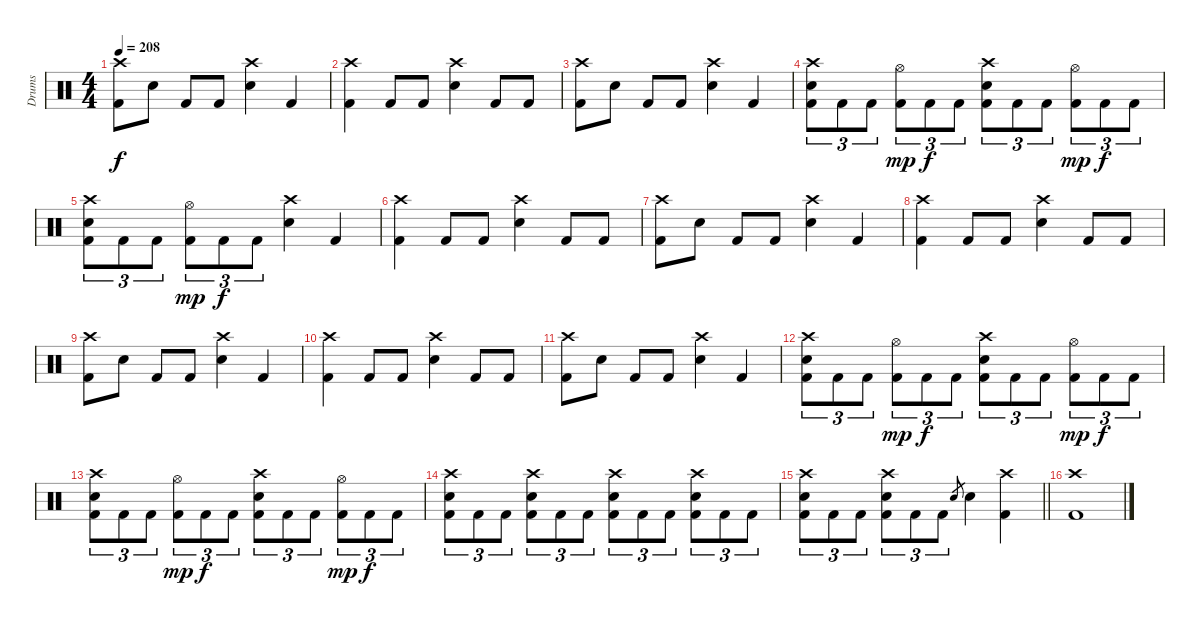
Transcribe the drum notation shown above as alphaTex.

\track ("Drums" "Drums") {instrument percussion}
\staff {score}
\articulation defaults
\ts (4 4)
\tempo 208
\clef neutral
\ks c
("Crash high (hit)" "Kick (hit) 2").8{dy f} "Electric Snare (hit)".8 "Kick (hit) 2".8 "Kick (hit) 2".8 ("Crash high (hit)" "Electric Snare (hit)").4 "Kick (hit) 2".4 |
("Crash high (hit)" "Kick (hit) 2").4 "Kick (hit) 2".8 "Kick (hit) 2".8 ("Crash high (hit)" "Electric Snare (hit)").4 "Kick (hit) 2".8 "Kick (hit) 2".8 |
("Crash high (hit)" "Kick (hit) 2").8 "Electric Snare (hit)".8 "Kick (hit) 2".8 "Kick (hit) 2".8 ("Crash high (hit)" "Electric Snare (hit)").4 "Kick (hit) 2".4 |
("Crash high (hit)" "Electric Snare (hit)" "Kick (hit) 2").8{tu (3 2)} "Kick (hit) 2".8{tu (3 2)} "Kick (hit) 2".8{tu (3 2)} ("Hi-Hat (open)" "Kick (hit) 2").8{tu (3 2) dy mp} "Kick (hit) 2".8{tu (3 2) dy f} "Kick (hit) 2".8{tu (3 2)} ("Crash high (hit)" "Electric Snare (hit)" "Kick (hit) 2").8{tu (3 2)} "Kick (hit) 2".8{tu (3 2)} "Kick (hit) 2".8{tu (3 2)} ("Hi-Hat (open)" "Kick (hit) 2").8{tu (3 2) dy mp} "Kick (hit) 2".8{tu (3 2) dy f} "Kick (hit) 2".8{tu (3 2)} |
("Crash high (hit)" "Electric Snare (hit)" "Kick (hit) 2").8{tu (3 2)} "Kick (hit) 2".8{tu (3 2)} "Kick (hit) 2".8{tu (3 2)} ("Hi-Hat (open)" "Kick (hit) 2").8{tu (3 2) dy mp} "Kick (hit) 2".8{tu (3 2) dy f} "Kick (hit) 2".8{tu (3 2)} ("Crash high (hit)" "Electric Snare (hit)").4 "Kick (hit) 2".4 |
("Crash high (hit)" "Kick (hit) 2").4 "Kick (hit) 2".8 "Kick (hit) 2".8 ("Crash high (hit)" "Electric Snare (hit)").4 "Kick (hit) 2".8 "Kick (hit) 2".8 |
("Crash high (hit)" "Kick (hit) 2").8 "Electric Snare (hit)".8 "Kick (hit) 2".8 "Kick (hit) 2".8 ("Crash high (hit)" "Electric Snare (hit)").4 "Kick (hit) 2".4 |
("Crash high (hit)" "Kick (hit) 2").4 "Kick (hit) 2".8 "Kick (hit) 2".8 ("Crash high (hit)" "Electric Snare (hit)").4 "Kick (hit) 2".8 "Kick (hit) 2".8 |
("Crash high (hit)" "Kick (hit) 2").8 "Electric Snare (hit)".8 "Kick (hit) 2".8 "Kick (hit) 2".8 ("Crash high (hit)" "Electric Snare (hit)").4 "Kick (hit) 2".4 |
("Crash high (hit)" "Kick (hit) 2").4 "Kick (hit) 2".8 "Kick (hit) 2".8 ("Crash high (hit)" "Electric Snare (hit)").4 "Kick (hit) 2".8 "Kick (hit) 2".8 |
("Crash high (hit)" "Kick (hit) 2").8 "Electric Snare (hit)".8 "Kick (hit) 2".8 "Kick (hit) 2".8 ("Crash high (hit)" "Electric Snare (hit)").4 "Kick (hit) 2".4 |
("Crash high (hit)" "Electric Snare (hit)" "Kick (hit) 2").8{tu (3 2)} "Kick (hit) 2".8{tu (3 2)} "Kick (hit) 2".8{tu (3 2)} ("Hi-Hat (open)" "Kick (hit) 2").8{tu (3 2) dy mp} "Kick (hit) 2".8{tu (3 2) dy f} "Kick (hit) 2".8{tu (3 2)} ("Crash high (hit)" "Electric Snare (hit)" "Kick (hit) 2").8{tu (3 2)} "Kick (hit) 2".8{tu (3 2)} "Kick (hit) 2".8{tu (3 2)} ("Hi-Hat (open)" "Kick (hit) 2").8{tu (3 2) dy mp} "Kick (hit) 2".8{tu (3 2) dy f} "Kick (hit) 2".8{tu (3 2)} |
("Crash high (hit)" "Electric Snare (hit)" "Kick (hit) 2").8{tu (3 2)} "Kick (hit) 2".8{tu (3 2)} "Kick (hit) 2".8{tu (3 2)} ("Hi-Hat (open)" "Kick (hit) 2").8{tu (3 2) dy mp} "Kick (hit) 2".8{tu (3 2) dy f} "Kick (hit) 2".8{tu (3 2)} ("Crash high (hit)" "Electric Snare (hit)" "Kick (hit) 2").8{tu (3 2)} "Kick (hit) 2".8{tu (3 2)} "Kick (hit) 2".8{tu (3 2)} ("Hi-Hat (open)" "Kick (hit) 2").8{tu (3 2) dy mp} "Kick (hit) 2".8{tu (3 2) dy f} "Kick (hit) 2".8{tu (3 2)} |
("Crash high (hit)" "Electric Snare (hit)" "Kick (hit) 2").8{tu (3 2)} "Kick (hit) 2".8{tu (3 2)} "Kick (hit) 2".8{tu (3 2)} ("Crash high (hit)" "Electric Snare (hit)" "Kick (hit) 2").8{tu (3 2)} "Kick (hit) 2".8{tu (3 2)} "Kick (hit) 2".8{tu (3 2)} ("Crash high (hit)" "Electric Snare (hit)" "Kick (hit) 2").8{tu (3 2)} "Kick (hit) 2".8{tu (3 2)} "Kick (hit) 2".8{tu (3 2)} ("Crash high (hit)" "Electric Snare (hit)" "Kick (hit) 2").8{tu (3 2)} "Kick (hit) 2".8{tu (3 2)} "Kick (hit) 2".8{tu (3 2)} |
\barLineRight lightlight
("Crash high (hit)" "Electric Snare (hit)" "Kick (hit) 2").8{tu (3 2)} "Kick (hit) 2".8{tu (3 2)} "Kick (hit) 2".8{tu (3 2)} ("Crash high (hit)" "Electric Snare (hit)" "Kick (hit) 2").8{tu (3 2)} "Kick (hit) 2".8{tu (3 2)} "Kick (hit) 2".8{tu (3 2)} "Electric Snare (hit)".8{gr} "Electric Snare (hit)".4 ("Crash high (hit)" "Kick (hit) 2").4 |
("Crash high (hit)" "Kick (hit) 2").1
